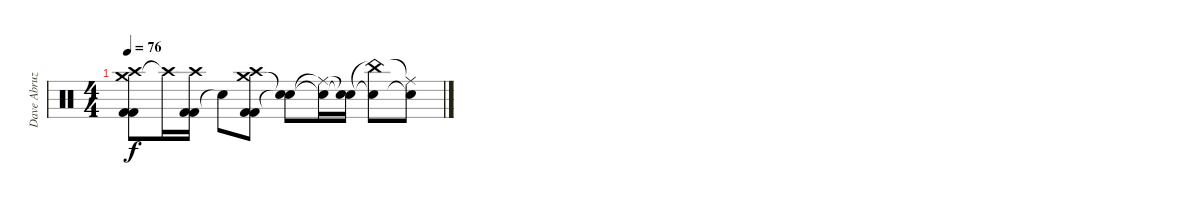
\track ("Dave Abruzzese" "Dave Abruz") {instrument percussion}
\staff {score}
\articulation defaults
\ts (4 4)
\tempo 76
\clef neutral
\ks c
("Crash medium (hit)" "Kick (hit) 2" "Kick (hit) 2" "Crash high (hit)").8{dy f} "Crash high (hit)"{t}.16 ("Kick (hit) 2" "Kick (hit) 2" "Crash high (hit)").16 "Snare (hit)"{t}.8 ("Crash medium (hit)" "Kick (hit) 2" "Kick (hit) 2" "Crash high (hit)").8 ("Snare (hit)"{t} "Snare (hit)"{t}).8 ("Snare (hit)"{t} "Ride (middle)"{t}).16 ("Snare (hit)"{t} "Snare (hit)"{t}).16 ("Snare (hit)"{t} "China (hit)"{t}).8 ("Snare (hit)"{t} "Ride (middle)"{t}).8
